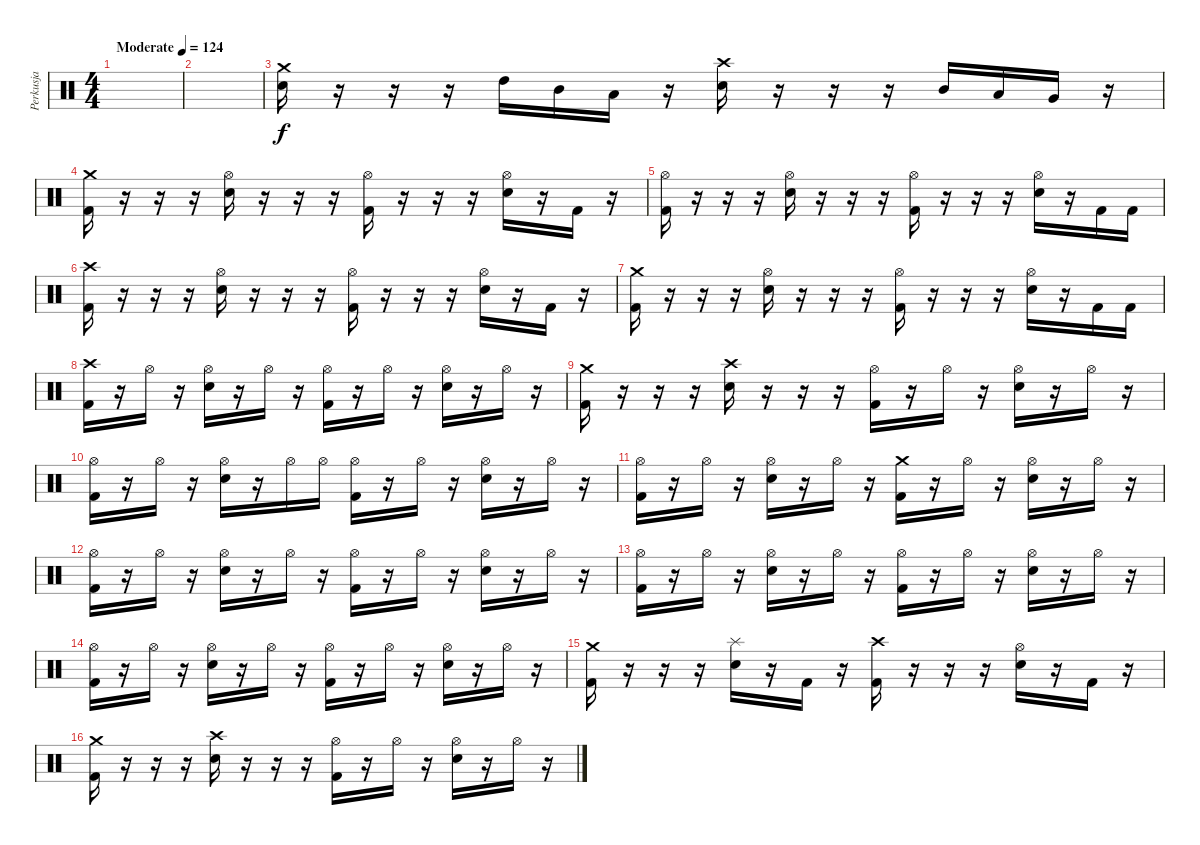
\track ("Perkusja" "Perkusja") {instrument percussion}
\staff {score}
\articulation defaults
\ts (4 4)
\tempo (124 "Moderate")
\clef neutral
\ks c
|
|
("Crash medium (hit)" "Snare (hit) 2").16 r.16 r.16 r.16 "High Tom (hit)".16 "Mid Tom (hit)".16 "Low Tom (hit)".16 r.16 ("Crash high (hit)" "Snare (hit) 2").16 r.16 r.16 r.16 "Mid Tom (hit)".16 "Low Tom (hit)".16 "Very Low Tom (hit)".16 r.16 |
("Crash medium (hit)" "Kick (hit) 2").16 r.16 r.16 r.16 ("Snare (hit) 2" "Hi-Hat (open)").16 r.16 r.16 r.16 ("Hi-Hat (open)" "Kick (hit) 2").16 r.16 r.16 r.16 ("Snare (hit) 2" "Hi-Hat (open)").16 r.16 "Kick (hit) 2".16 r.16 |
("Hi-Hat (open)" "Kick (hit) 2").16 r.16 r.16 r.16 ("Snare (hit) 2" "Hi-Hat (open)").16 r.16 r.16 r.16 ("Hi-Hat (open)" "Kick (hit) 2").16 r.16 r.16 r.16 ("Snare (hit) 2" "Hi-Hat (open)").16 r.16 "Kick (hit) 2".16 "Kick (hit) 2".16 |
("Crash high (hit)" "Kick (hit) 2").16 r.16 r.16 r.16 ("Snare (hit) 2" "Hi-Hat (open)").16 r.16 r.16 r.16 ("Hi-Hat (open)" "Kick (hit) 2").16 r.16 r.16 r.16 ("Snare (hit) 2" "Hi-Hat (open)").16 r.16 "Kick (hit) 2".16 r.16 |
("Crash medium (hit)" "Kick (hit) 2").16 r.16 r.16 r.16 ("Snare (hit) 2" "Hi-Hat (open)").16 r.16 r.16 r.16 ("Hi-Hat (open)" "Kick (hit) 2").16 r.16 r.16 r.16 ("Snare (hit) 2" "Hi-Hat (open)").16 r.16 "Kick (hit) 2".16 "Kick (hit) 2".16 |
("Crash high (hit)" "Kick (hit) 2").16 r.16 "Hi-Hat (open)".16 r.16 ("Snare (hit) 2" "Hi-Hat (open)").16 r.16 "Hi-Hat (open)".16 r.16 ("Hi-Hat (open)" "Kick (hit) 2").16 r.16 "Hi-Hat (open)".16 r.16 ("Snare (hit) 2" "Hi-Hat (open)").16 r.16 "Hi-Hat (open)".16 r.16 |
("Crash medium (hit)" "Kick (hit) 2").16 r.16 r.16 r.16 ("Snare (hit) 2" "Crash high (hit)").16 r.16 r.16 r.16 ("Hi-Hat (open)" "Kick (hit) 2").16 r.16 "Hi-Hat (open)".16 r.16 ("Snare (hit) 2" "Hi-Hat (open)").16 r.16 "Hi-Hat (open)".16 r.16 |
("Hi-Hat (open)" "Kick (hit) 2").16 r.16 "Hi-Hat (open)".16 r.16 ("Snare (hit) 2" "Hi-Hat (open)").16 r.16 "Hi-Hat (open)".16 "Hi-Hat (open)".16 ("Hi-Hat (open)" "Kick (hit) 2").16 r.16 "Hi-Hat (open)".16 r.16 ("Snare (hit) 2" "Hi-Hat (open)").16 r.16 "Hi-Hat (open)".16 r.16 |
("Hi-Hat (open)" "Kick (hit) 2").16 r.16 "Hi-Hat (open)".16 r.16 ("Snare (hit) 2" "Hi-Hat (open)").16 r.16 "Hi-Hat (open)".16 r.16 ("Crash medium (hit)" "Kick (hit) 2").16 r.16 "Hi-Hat (open)".16 r.16 ("Snare (hit) 2" "Hi-Hat (open)").16 r.16 "Hi-Hat (open)".16 r.16 |
("Hi-Hat (open)" "Kick (hit) 2").16 r.16 "Hi-Hat (open)".16 r.16 ("Snare (hit) 2" "Hi-Hat (open)").16 r.16 "Hi-Hat (open)".16 r.16 ("Hi-Hat (open)" "Kick (hit) 2").16 r.16 "Hi-Hat (open)".16 r.16 ("Snare (hit) 2" "Hi-Hat (open)").16 r.16 "Hi-Hat (open)".16 r.16 |
("Hi-Hat (open)" "Kick (hit) 2").16 r.16 "Hi-Hat (open)".16 r.16 ("Snare (hit) 2" "Hi-Hat (open)").16 r.16 "Hi-Hat (open)".16 r.16 ("Hi-Hat (open)" "Kick (hit) 2").16 r.16 "Hi-Hat (open)".16 r.16 ("Snare (hit) 2" "Hi-Hat (open)").16 r.16 "Hi-Hat (open)".16 r.16 |
("Hi-Hat (open)" "Kick (hit) 2").16 r.16 "Hi-Hat (open)".16 r.16 ("Snare (hit) 2" "Hi-Hat (open)").16 r.16 "Hi-Hat (open)".16 r.16 ("Hi-Hat (open)" "Kick (hit) 2").16 r.16 "Hi-Hat (open)".16 r.16 ("Snare (hit) 2" "Hi-Hat (open)").16 r.16 "Hi-Hat (open)".16 r.16 |
("Crash medium (hit)" "Kick (hit) 2").16 r.16 r.16 r.16 ("Snare (hit) 2" "Splash (hit)").16 r.16 "Kick (hit) 2".16 r.16 ("Crash high (hit)" "Kick (hit) 2").16 r.16 r.16 r.16 ("Snare (hit) 2" "Hi-Hat (open)").16 r.16 "Kick (hit) 2".16 r.16 |
("Crash medium (hit)" "Kick (hit) 2").16 r.16 r.16 r.16 ("Snare (hit) 2" "Crash high (hit)").16 r.16 r.16 r.16 ("Hi-Hat (open)" "Kick (hit) 2").16 r.16 "Hi-Hat (open)".16 r.16 ("Snare (hit) 2" "Hi-Hat (open)").16 r.16 "Hi-Hat (open)".16 r.16
